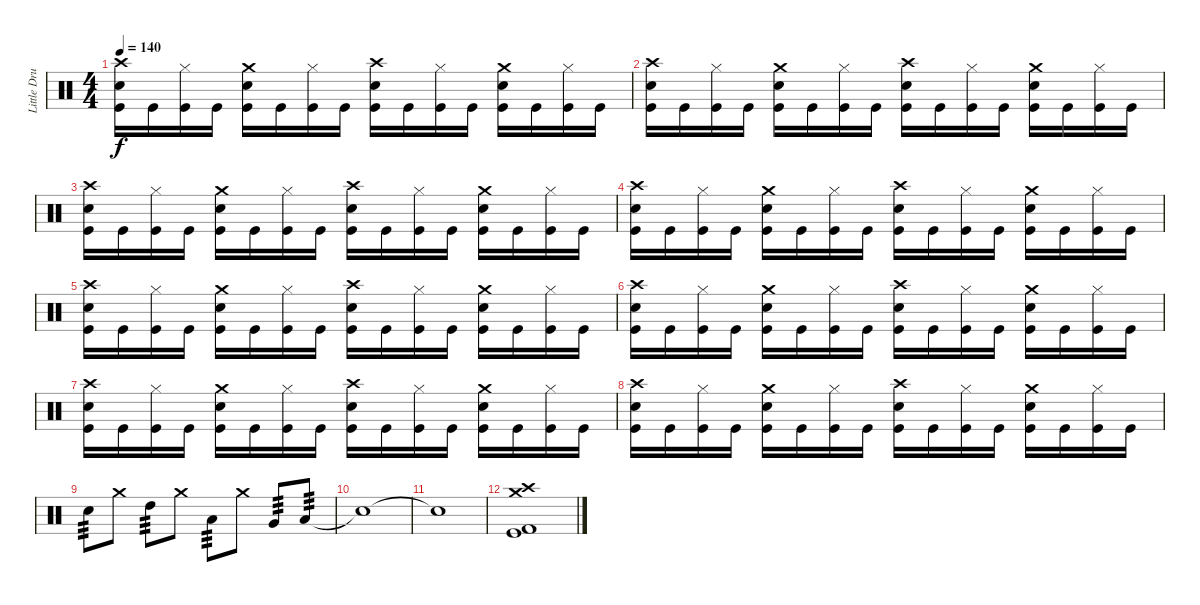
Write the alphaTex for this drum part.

\track ("Little Drummer Boy" "Little Dru") {instrument percussion}
\staff {score}
\articulation defaults
\ts (4 4)
\tempo 140
\clef neutral
\ks c
("Crash high (hit)" "Snare (hit) 2" "Kick (hit)").16{dy f} "Kick (hit)".16 ("Hi-Hat (closed)" "Kick (hit)").16 "Kick (hit)".16 ("Crash medium (hit)" "Snare (hit) 2" "Kick (hit)").16 "Kick (hit)".16 ("Hi-Hat (closed)" "Kick (hit)").16 "Kick (hit)".16 ("Crash high (hit)" "Snare (hit) 2" "Kick (hit)").16 "Kick (hit)".16 ("Hi-Hat (closed)" "Kick (hit)").16 "Kick (hit)".16 ("Crash medium (hit)" "Snare (hit) 2" "Kick (hit)").16 "Kick (hit)".16 ("Hi-Hat (closed)" "Kick (hit)").16 "Kick (hit)".16 |
("Crash high (hit)" "Snare (hit) 2" "Kick (hit)").16 "Kick (hit)".16 ("Hi-Hat (closed)" "Kick (hit)").16 "Kick (hit)".16 ("Crash medium (hit)" "Snare (hit) 2" "Kick (hit)").16 "Kick (hit)".16 ("Hi-Hat (closed)" "Kick (hit)").16 "Kick (hit)".16 ("Crash high (hit)" "Snare (hit) 2" "Kick (hit)").16 "Kick (hit)".16 ("Hi-Hat (closed)" "Kick (hit)").16 "Kick (hit)".16 ("Crash medium (hit)" "Snare (hit) 2" "Kick (hit)").16 "Kick (hit)".16 ("Hi-Hat (closed)" "Kick (hit)").16 "Kick (hit)".16 |
("Crash high (hit)" "Snare (hit) 2" "Kick (hit)").16 "Kick (hit)".16 ("Hi-Hat (closed)" "Kick (hit)").16 "Kick (hit)".16 ("Crash medium (hit)" "Snare (hit) 2" "Kick (hit)").16 "Kick (hit)".16 ("Hi-Hat (closed)" "Kick (hit)").16 "Kick (hit)".16 ("Crash high (hit)" "Snare (hit) 2" "Kick (hit)").16 "Kick (hit)".16 ("Hi-Hat (closed)" "Kick (hit)").16 "Kick (hit)".16 ("Crash medium (hit)" "Snare (hit) 2" "Kick (hit)").16 "Kick (hit)".16 ("Hi-Hat (closed)" "Kick (hit)").16 "Kick (hit)".16 |
("Crash high (hit)" "Snare (hit) 2" "Kick (hit)").16 "Kick (hit)".16 ("Hi-Hat (closed)" "Kick (hit)").16 "Kick (hit)".16 ("Crash medium (hit)" "Snare (hit) 2" "Kick (hit)").16 "Kick (hit)".16 ("Hi-Hat (closed)" "Kick (hit)").16 "Kick (hit)".16 ("Crash high (hit)" "Snare (hit) 2" "Kick (hit)").16 "Kick (hit)".16 ("Hi-Hat (closed)" "Kick (hit)").16 "Kick (hit)".16 ("Crash medium (hit)" "Snare (hit) 2" "Kick (hit)").16 "Kick (hit)".16 ("Hi-Hat (closed)" "Kick (hit)").16 "Kick (hit)".16 |
("Crash high (hit)" "Snare (hit) 2" "Kick (hit)").16 "Kick (hit)".16 ("Hi-Hat (closed)" "Kick (hit)").16 "Kick (hit)".16 ("Crash medium (hit)" "Snare (hit) 2" "Kick (hit)").16 "Kick (hit)".16 ("Hi-Hat (closed)" "Kick (hit)").16 "Kick (hit)".16 ("Crash high (hit)" "Snare (hit) 2" "Kick (hit)").16 "Kick (hit)".16 ("Hi-Hat (closed)" "Kick (hit)").16 "Kick (hit)".16 ("Crash medium (hit)" "Snare (hit) 2" "Kick (hit)").16 "Kick (hit)".16 ("Hi-Hat (closed)" "Kick (hit)").16 "Kick (hit)".16 |
("Crash high (hit)" "Snare (hit) 2" "Kick (hit)").16 "Kick (hit)".16 ("Hi-Hat (closed)" "Kick (hit)").16 "Kick (hit)".16 ("Crash medium (hit)" "Snare (hit) 2" "Kick (hit)").16 "Kick (hit)".16 ("Hi-Hat (closed)" "Kick (hit)").16 "Kick (hit)".16 ("Crash high (hit)" "Snare (hit) 2" "Kick (hit)").16 "Kick (hit)".16 ("Hi-Hat (closed)" "Kick (hit)").16 "Kick (hit)".16 ("Crash medium (hit)" "Snare (hit) 2" "Kick (hit)").16 "Kick (hit)".16 ("Hi-Hat (closed)" "Kick (hit)").16 "Kick (hit)".16 |
("Crash high (hit)" "Snare (hit) 2" "Kick (hit)").16 "Kick (hit)".16 ("Hi-Hat (closed)" "Kick (hit)").16 "Kick (hit)".16 ("Crash medium (hit)" "Snare (hit) 2" "Kick (hit)").16 "Kick (hit)".16 ("Hi-Hat (closed)" "Kick (hit)").16 "Kick (hit)".16 ("Crash high (hit)" "Snare (hit) 2" "Kick (hit)").16 "Kick (hit)".16 ("Hi-Hat (closed)" "Kick (hit)").16 "Kick (hit)".16 ("Crash medium (hit)" "Snare (hit) 2" "Kick (hit)").16 "Kick (hit)".16 ("Hi-Hat (closed)" "Kick (hit)").16 "Kick (hit)".16 |
("Crash high (hit)" "Snare (hit) 2" "Kick (hit)").16 "Kick (hit)".16 ("Hi-Hat (closed)" "Kick (hit)").16 "Kick (hit)".16 ("Crash medium (hit)" "Snare (hit) 2" "Kick (hit)").16 "Kick (hit)".16 ("Hi-Hat (closed)" "Kick (hit)").16 "Kick (hit)".16 ("Crash high (hit)" "Snare (hit) 2" "Kick (hit)").16 "Kick (hit)".16 ("Hi-Hat (closed)" "Kick (hit)").16 "Kick (hit)".16 ("Crash medium (hit)" "Snare (hit) 2" "Kick (hit)").16 "Kick (hit)".16 ("Hi-Hat (closed)" "Kick (hit)").16 "Kick (hit)".16 |
"Snare (hit) 2".8{tp 3} "Crash medium (hit)".8 "High Tom (hit)".8{tp 3} "Crash medium (hit)".8 "Low Tom (hit)".8{tp 3} "Crash medium (hit)".8 "Very Low Tom (hit)".8{tp 3} "Low Floor Tom (hit)".8{tp 3} |
"Snare (hit)"{t}.1 |
"Snare (hit)"{t}.1 |
("Crash medium (hit)" "Crash high (hit)" "Kick (hit) 2" "Kick (hit)").1
